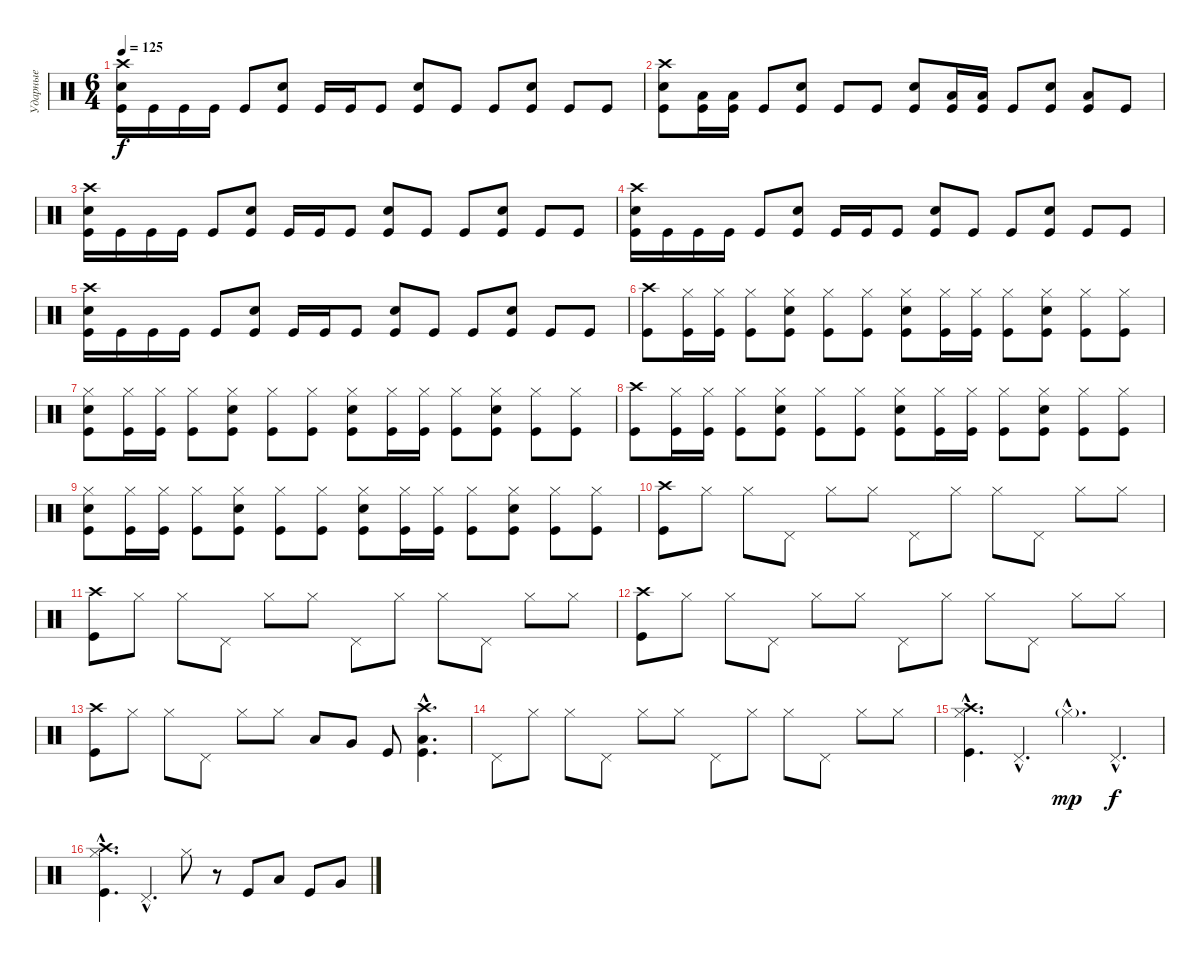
\track ("Ударные" "Ударные") {instrument percussion}
\staff {score}
\articulation defaults
\ts (6 4)
\tempo 125
\clef neutral
\ks c
("Crash high (hit)" "Electric Snare (hit)" "Kick (hit)").16{dy f} "Kick (hit)".16 "Kick (hit)".16 "Kick (hit)".16 "Kick (hit)".8 ("Electric Snare (hit)" "Kick (hit)").8 "Kick (hit)".16 "Kick (hit)".16 "Kick (hit)".8 ("Electric Snare (hit)" "Kick (hit)").8 "Kick (hit)".8 "Kick (hit)".8 ("Electric Snare (hit)" "Kick (hit)").8 "Kick (hit)".8 "Kick (hit)".8 |
("Crash high (hit)" "Electric Snare (hit)" "Kick (hit)").8 ("Low Tom (hit)" "Kick (hit)").16 ("Low Tom (hit)" "Kick (hit)").16 "Kick (hit)".8 ("Electric Snare (hit)" "Kick (hit)").8 "Kick (hit)".8 "Kick (hit)".8 ("Electric Snare (hit)" "Kick (hit)").8 ("Low Tom (hit)" "Kick (hit)").16 ("Low Tom (hit)" "Kick (hit)").16 "Kick (hit)".8 ("Electric Snare (hit)" "Kick (hit)").8 ("Low Tom (hit)" "Kick (hit)").8 "Kick (hit)".8 |
("Crash high (hit)" "Electric Snare (hit)" "Kick (hit)").16 "Kick (hit)".16 "Kick (hit)".16 "Kick (hit)".16 "Kick (hit)".8 ("Electric Snare (hit)" "Kick (hit)").8 "Kick (hit)".16 "Kick (hit)".16 "Kick (hit)".8 ("Electric Snare (hit)" "Kick (hit)").8 "Kick (hit)".8 "Kick (hit)".8 ("Electric Snare (hit)" "Kick (hit)").8 "Kick (hit)".8 "Kick (hit)".8 |
("Crash high (hit)" "Electric Snare (hit)" "Kick (hit)").16 "Kick (hit)".16 "Kick (hit)".16 "Kick (hit)".16 "Kick (hit)".8 ("Electric Snare (hit)" "Kick (hit)").8 "Kick (hit)".16 "Kick (hit)".16 "Kick (hit)".8 ("Electric Snare (hit)" "Kick (hit)").8 "Kick (hit)".8 "Kick (hit)".8 ("Electric Snare (hit)" "Kick (hit)").8 "Kick (hit)".8 "Kick (hit)".8 |
("Crash high (hit)" "Electric Snare (hit)" "Kick (hit)").16 "Kick (hit)".16 "Kick (hit)".16 "Kick (hit)".16 "Kick (hit)".8 ("Electric Snare (hit)" "Kick (hit)").8 "Kick (hit)".16 "Kick (hit)".16 "Kick (hit)".8 ("Electric Snare (hit)" "Kick (hit)").8 "Kick (hit)".8 "Kick (hit)".8 ("Electric Snare (hit)" "Kick (hit)").8 "Kick (hit)".8 "Kick (hit)".8 |
("Crash high (hit)" "Kick (hit)").8 ("Hi-Hat (closed)" "Kick (hit)").16 ("Hi-Hat (closed)" "Kick (hit)").16 ("Hi-Hat (closed)" "Kick (hit)").8 ("Hi-Hat (closed)" "Electric Snare (hit)" "Kick (hit)").8 ("Hi-Hat (closed)" "Kick (hit)").8 ("Hi-Hat (closed)" "Kick (hit)").8 ("Hi-Hat (closed)" "Electric Snare (hit)" "Kick (hit)").8 ("Hi-Hat (closed)" "Kick (hit)").16 ("Hi-Hat (closed)" "Kick (hit)").16 ("Hi-Hat (closed)" "Kick (hit)").8 ("Hi-Hat (closed)" "Electric Snare (hit)" "Kick (hit)").8 ("Hi-Hat (closed)" "Kick (hit)").8 ("Hi-Hat (closed)" "Kick (hit)").8 |
("Hi-Hat (closed)" "Electric Snare (hit)" "Kick (hit)").8 ("Hi-Hat (closed)" "Kick (hit)").16 ("Hi-Hat (closed)" "Kick (hit)").16 ("Hi-Hat (closed)" "Kick (hit)").8 ("Hi-Hat (closed)" "Electric Snare (hit)" "Kick (hit)").8 ("Hi-Hat (closed)" "Kick (hit)").8 ("Hi-Hat (closed)" "Kick (hit)").8 ("Hi-Hat (closed)" "Electric Snare (hit)" "Kick (hit)").8 ("Hi-Hat (closed)" "Kick (hit)").16 ("Hi-Hat (closed)" "Kick (hit)").16 ("Hi-Hat (closed)" "Kick (hit)").8 ("Hi-Hat (closed)" "Electric Snare (hit)" "Kick (hit)").8 ("Hi-Hat (closed)" "Kick (hit)").8 ("Hi-Hat (closed)" "Kick (hit)").8 |
("Crash high (hit)" "Kick (hit)").8 ("Hi-Hat (closed)" "Kick (hit)").16 ("Hi-Hat (closed)" "Kick (hit)").16 ("Hi-Hat (closed)" "Kick (hit)").8 ("Hi-Hat (closed)" "Electric Snare (hit)" "Kick (hit)").8 ("Hi-Hat (closed)" "Kick (hit)").8 ("Hi-Hat (closed)" "Kick (hit)").8 ("Hi-Hat (closed)" "Electric Snare (hit)" "Kick (hit)").8 ("Hi-Hat (closed)" "Kick (hit)").16 ("Hi-Hat (closed)" "Kick (hit)").16 ("Hi-Hat (closed)" "Kick (hit)").8 ("Hi-Hat (closed)" "Electric Snare (hit)" "Kick (hit)").8 ("Hi-Hat (closed)" "Kick (hit)").8 ("Hi-Hat (closed)" "Kick (hit)").8 |
("Hi-Hat (closed)" "Electric Snare (hit)" "Kick (hit)").8 ("Hi-Hat (closed)" "Kick (hit)").16 ("Hi-Hat (closed)" "Kick (hit)").16 ("Hi-Hat (closed)" "Kick (hit)").8 ("Hi-Hat (closed)" "Electric Snare (hit)" "Kick (hit)").8 ("Hi-Hat (closed)" "Kick (hit)").8 ("Hi-Hat (closed)" "Kick (hit)").8 ("Hi-Hat (closed)" "Electric Snare (hit)" "Kick (hit)").8 ("Hi-Hat (closed)" "Kick (hit)").16 ("Hi-Hat (closed)" "Kick (hit)").16 ("Hi-Hat (closed)" "Kick (hit)").8 ("Hi-Hat (closed)" "Electric Snare (hit)" "Kick (hit)").8 ("Hi-Hat (closed)" "Kick (hit)").8 ("Hi-Hat (closed)" "Kick (hit)").8 |
("Crash high (hit)" "Kick (hit)").8 "Hi-Hat (closed)".8 "Hi-Hat (closed)".8 "Pedal Hi-Hat (hit)".8 "Hi-Hat (closed)".8 "Hi-Hat (closed)".8 "Pedal Hi-Hat (hit)".8 "Hi-Hat (closed)".8 "Hi-Hat (closed)".8 "Pedal Hi-Hat (hit)".8 "Hi-Hat (closed)".8 "Hi-Hat (closed)".8 |
("Crash high (hit)" "Kick (hit)").8 "Hi-Hat (closed)".8 "Hi-Hat (closed)".8 "Pedal Hi-Hat (hit)".8 "Hi-Hat (closed)".8 "Hi-Hat (closed)".8 "Pedal Hi-Hat (hit)".8 "Hi-Hat (closed)".8 "Hi-Hat (closed)".8 "Pedal Hi-Hat (hit)".8 "Hi-Hat (closed)".8 "Hi-Hat (closed)".8 |
("Crash high (hit)" "Kick (hit)").8 "Hi-Hat (closed)".8 "Hi-Hat (closed)".8 "Pedal Hi-Hat (hit)".8 "Hi-Hat (closed)".8 "Hi-Hat (closed)".8 "Pedal Hi-Hat (hit)".8 "Hi-Hat (closed)".8 "Hi-Hat (closed)".8 "Pedal Hi-Hat (hit)".8 "Hi-Hat (closed)".8 "Hi-Hat (closed)".8 |
("Crash high (hit)" "Kick (hit)").8 "Hi-Hat (closed)".8 "Hi-Hat (closed)".8 "Pedal Hi-Hat (hit)".8 "Hi-Hat (closed)".8 "Hi-Hat (closed)".8 "Low Tom (hit)".8 "Very Low Tom (hit)".8 "Kick (hit)".8 ("Crash high (hit)"{hac} "Low Tom (hit)"{hac} "Kick (hit)"{hac}).4{d} |
"Pedal Hi-Hat (hit)".8 "Hi-Hat (closed)".8 "Hi-Hat (closed)".8 "Pedal Hi-Hat (hit)".8 "Hi-Hat (closed)".8 "Hi-Hat (closed)".8 "Pedal Hi-Hat (hit)".8 "Hi-Hat (closed)".8 "Hi-Hat (closed)".8 "Pedal Hi-Hat (hit)".8 "Hi-Hat (closed)".8 "Hi-Hat (closed)".8 |
("Crash high (hit)"{hac} "Hi-Hat (closed)"{hac} "Kick (hit)"{hac}).4{d} "Pedal Hi-Hat (hit)"{hac}.4{d} "Hi-Hat (closed)"{g hac}.4{d dy mp} "Pedal Hi-Hat (hit)"{hac}.4{d dy f} |
("Crash high (hit)"{hac} "Hi-Hat (closed)"{hac} "Kick (hit)"{hac}).4{d} "Pedal Hi-Hat (hit)"{hac}.4{d} "Hi-Hat (closed)".8 r.8 "Kick (hit)".8 "Low Tom (hit)".8 "Kick (hit)".8 "Very Low Tom (hit)".8
